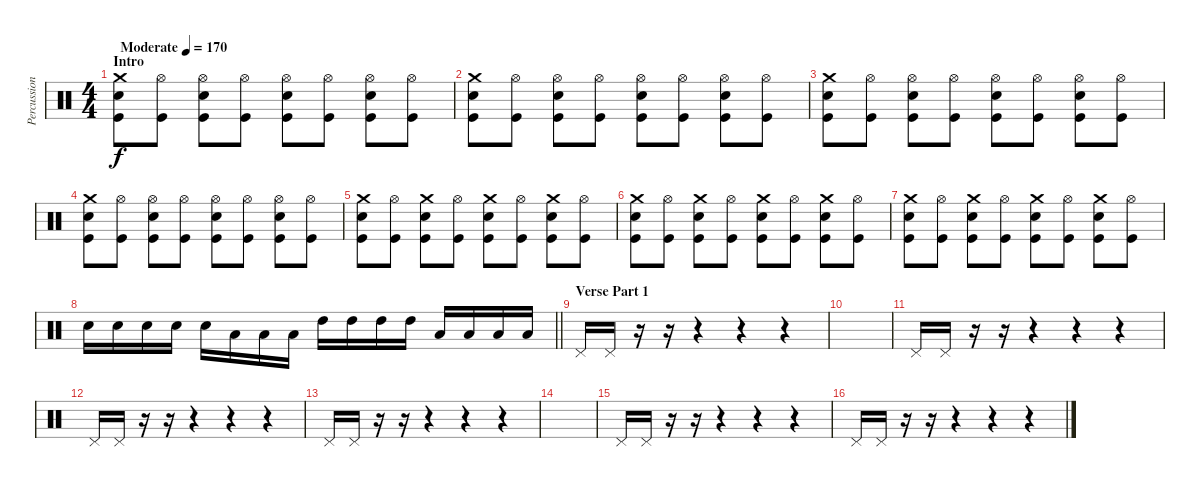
\track ("Percussion" "Percussion") {instrument percussion}
\staff {score}
\articulation defaults
\ts (4 4)
\section ("" "Intro")
\tempo (170 "Moderate")
\clef neutral
\ks c
("Crash medium (hit)" "Snare (hit) 2" "Kick (hit)").8{dy f} ("Hi-Hat (open)" "Kick (hit)").8 ("Hi-Hat (open)" "Snare (hit) 2" "Kick (hit)").8 ("Hi-Hat (open)" "Kick (hit)").8 ("Hi-Hat (open)" "Snare (hit) 2" "Kick (hit)").8 ("Hi-Hat (open)" "Kick (hit)").8 ("Hi-Hat (open)" "Snare (hit) 2" "Kick (hit)").8 ("Hi-Hat (open)" "Kick (hit)").8 |
("Crash medium (hit)" "Snare (hit) 2" "Kick (hit)").8 ("Hi-Hat (open)" "Kick (hit)").8 ("Hi-Hat (open)" "Snare (hit) 2" "Kick (hit)").8 ("Hi-Hat (open)" "Kick (hit)").8 ("Hi-Hat (open)" "Snare (hit) 2" "Kick (hit)").8 ("Hi-Hat (open)" "Kick (hit)").8 ("Hi-Hat (open)" "Snare (hit) 2" "Kick (hit)").8 ("Hi-Hat (open)" "Kick (hit)").8 |
("Crash medium (hit)" "Snare (hit) 2" "Kick (hit)").8 ("Hi-Hat (open)" "Kick (hit)").8 ("Hi-Hat (open)" "Snare (hit) 2" "Kick (hit)").8 ("Hi-Hat (open)" "Kick (hit)").8 ("Hi-Hat (open)" "Snare (hit) 2" "Kick (hit)").8 ("Hi-Hat (open)" "Kick (hit)").8 ("Hi-Hat (open)" "Snare (hit) 2" "Kick (hit)").8 ("Hi-Hat (open)" "Kick (hit)").8 |
("Crash medium (hit)" "Snare (hit) 2" "Kick (hit)").8 ("Hi-Hat (open)" "Kick (hit)").8 ("Hi-Hat (open)" "Snare (hit) 2" "Kick (hit)").8 ("Hi-Hat (open)" "Kick (hit)").8 ("Hi-Hat (open)" "Snare (hit) 2" "Kick (hit)").8 ("Hi-Hat (open)" "Kick (hit)").8 ("Hi-Hat (open)" "Snare (hit) 2" "Kick (hit)").8 ("Hi-Hat (open)" "Kick (hit)").8 |
("Crash medium (hit)" "Snare (hit) 2" "Kick (hit)").8 ("Hi-Hat (open)" "Kick (hit)").8 ("Crash medium (hit)" "Snare (hit) 2" "Kick (hit)").8 ("Hi-Hat (open)" "Kick (hit)").8 ("Crash medium (hit)" "Snare (hit) 2" "Kick (hit)").8 ("Hi-Hat (open)" "Kick (hit)").8 ("Crash medium (hit)" "Snare (hit) 2" "Kick (hit)").8 ("Hi-Hat (open)" "Kick (hit)").8 |
("Crash medium (hit)" "Snare (hit) 2" "Kick (hit)").8 ("Hi-Hat (open)" "Kick (hit)").8 ("Crash medium (hit)" "Snare (hit) 2" "Kick (hit)").8 ("Hi-Hat (open)" "Kick (hit)").8 ("Crash medium (hit)" "Snare (hit) 2" "Kick (hit)").8 ("Hi-Hat (open)" "Kick (hit)").8 ("Crash medium (hit)" "Snare (hit) 2" "Kick (hit)").8 ("Hi-Hat (open)" "Kick (hit)").8 |
("Crash medium (hit)" "Snare (hit) 2" "Kick (hit)").8 ("Hi-Hat (open)" "Kick (hit)").8 ("Crash medium (hit)" "Snare (hit) 2" "Kick (hit)").8 ("Hi-Hat (open)" "Kick (hit)").8 ("Crash medium (hit)" "Snare (hit) 2" "Kick (hit)").8 ("Hi-Hat (open)" "Kick (hit)").8 ("Crash medium (hit)" "Snare (hit) 2" "Kick (hit)").8 ("Hi-Hat (open)" "Kick (hit)").8 |
\barLineRight lightlight "Snare (hit) 2".16 "Snare (hit) 2".16 "Snare (hit) 2".16 "Snare (hit) 2".16 "Snare (hit) 2".16 "Low Tom (hit)".16 "Low Tom (hit)".16 "Low Tom (hit)".16 "High Tom (hit)".16 "High Tom (hit)".16 "High Tom (hit)".16 "High Tom (hit)".16 "Low Floor Tom (hit)".16 "Low Floor Tom (hit)".16 "Low Floor Tom (hit)".16 "Low Floor Tom (hit)".16
|
\section ("" "Verse Part 1")
"Pedal Hi-Hat (hit)".16 "Pedal Hi-Hat (hit)".16 r.16 r.16 r.4 r.4 r.4 |
|
"Pedal Hi-Hat (hit)".16 "Pedal Hi-Hat (hit)".16 r.16 r.16 r.4 r.4 r.4 |
"Pedal Hi-Hat (hit)".16 "Pedal Hi-Hat (hit)".16 r.16 r.16 r.4 r.4 r.4 |
"Pedal Hi-Hat (hit)".16 "Pedal Hi-Hat (hit)".16 r.16 r.16 r.4 r.4 r.4 |
|
"Pedal Hi-Hat (hit)".16 "Pedal Hi-Hat (hit)".16 r.16 r.16 r.4 r.4 r.4 |
"Pedal Hi-Hat (hit)".16 "Pedal Hi-Hat (hit)".16 r.16 r.16 r.4 r.4 r.4
